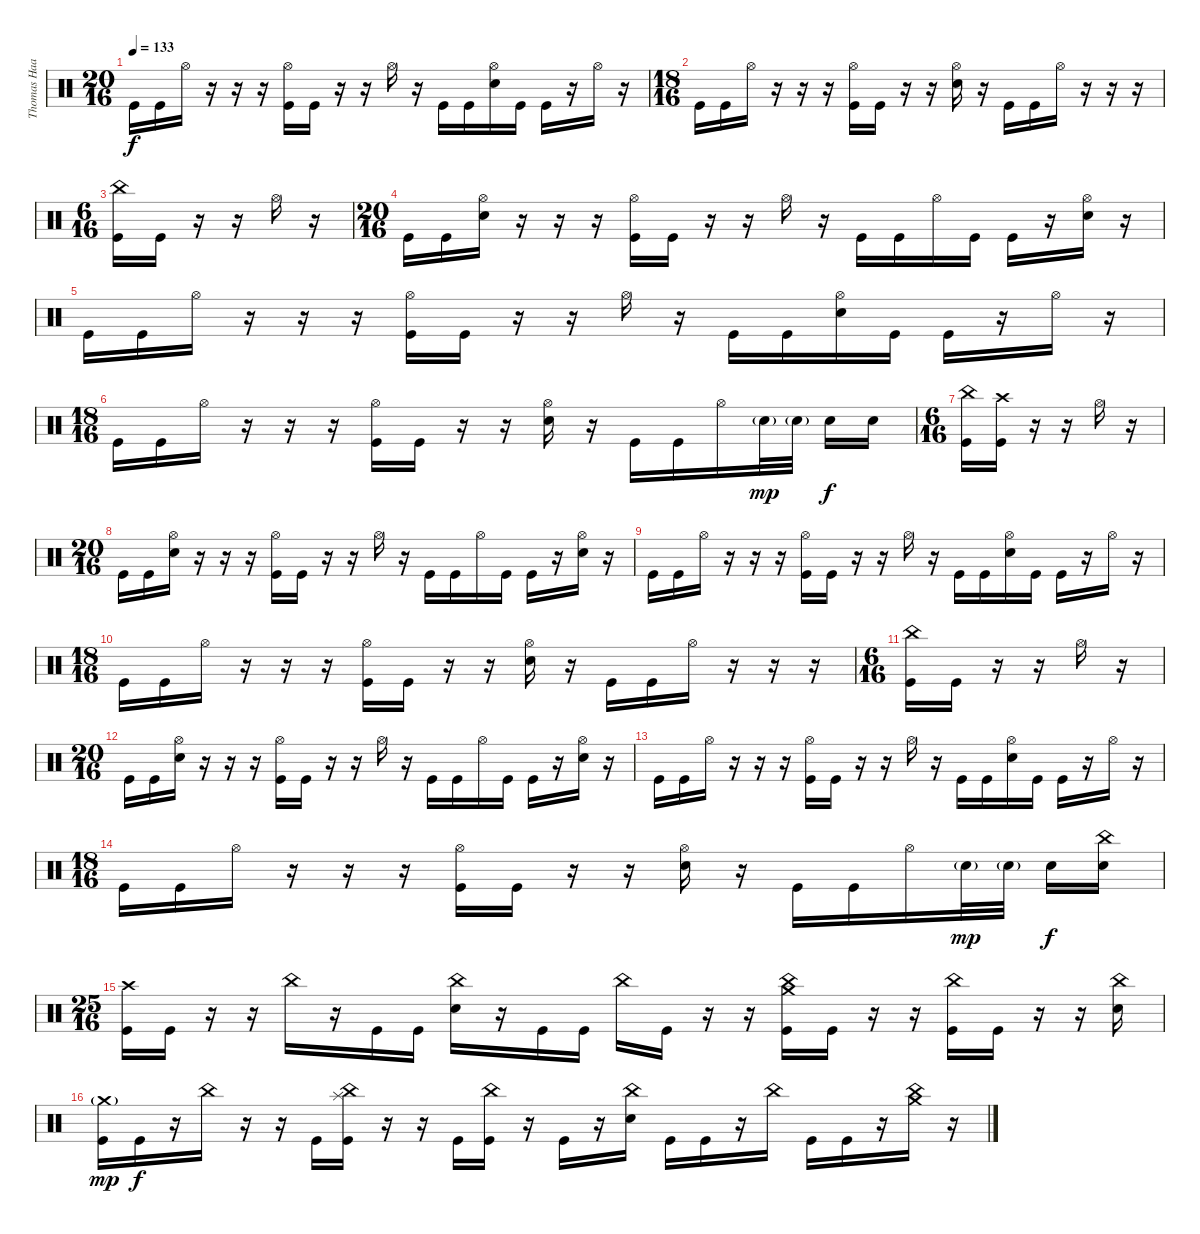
\track ("Thomas Haake" "Thomas Haa") {instrument percussion}
\staff {score}
\articulation defaults
\ts (20 16)
\tempo 133
\clef neutral
\ks c "Kick (hit)".16{dy f} "Kick (hit)".16 "Hi-Hat (open)".16
r.16 r.16 r.16 ("Hi-Hat (open)" "Kick (hit)").16 "Kick (hit)".16 r.16 r.16 "Hi-Hat (open)".16 r.16 "Kick (hit)".16 "Kick (hit)".16 ("Hi-Hat (open)" "Snare (hit) 2").16 "Kick (hit)".16 "Kick (hit)".16 r.16 "Hi-Hat (open)".16 r.16 |
\ts (18 16)
"Kick (hit)".16 "Kick (hit)".16 "Hi-Hat (open)".16 r.16 r.16 r.16 ("Hi-Hat (open)" "Kick (hit)").16 "Kick (hit)".16 r.16 r.16 ("Hi-Hat (open)" "Snare (hit) 2").16 r.16 "Kick (hit)".16 "Kick (hit)".16 "Hi-Hat (open)".16 r.16 r.16 r.16 |
\ts (6 16)
("China (hit)" "Kick (hit)").16 "Kick (hit)".16 r.16 r.16 "Hi-Hat (open)".16 r.16 |
\ts (20 16)
"Kick (hit)".16 "Kick (hit)".16 ("Hi-Hat (open)" "Snare (hit) 2").16 r.16 r.16 r.16 ("Hi-Hat (open)" "Kick (hit)").16 "Kick (hit)".16 r.16 r.16 "Hi-Hat (open)".16 r.16 "Kick (hit)".16 "Kick (hit)".16 "Hi-Hat (open)".16 "Kick (hit)".16 "Kick (hit)".16 r.16 ("Hi-Hat (open)" "Snare (hit) 2").16 r.16 |
"Kick (hit)".16 "Kick (hit)".16 "Hi-Hat (open)".16 r.16 r.16 r.16 ("Hi-Hat (open)" "Kick (hit)").16 "Kick (hit)".16 r.16 r.16 "Hi-Hat (open)".16 r.16 "Kick (hit)".16 "Kick (hit)".16 ("Hi-Hat (open)" "Snare (hit) 2").16 "Kick (hit)".16 "Kick (hit)".16 r.16 "Hi-Hat (open)".16 r.16 |
\ts (18 16)
"Kick (hit)".16 "Kick (hit)".16 "Hi-Hat (open)".16 r.16 r.16 r.16 ("Hi-Hat (open)" "Kick (hit)").16 "Kick (hit)".16 r.16 r.16 ("Hi-Hat (open)" "Snare (hit) 2").16 r.16 "Kick (hit)".16 "Kick (hit)".16 "Hi-Hat (open)".16 "Snare (hit) 2"{g}.32{dy mp} "Snare (hit) 2"{g}.32 "Snare (hit) 2".16{dy f} "Snare (hit) 2".16 |
\ts (6 16)
("China (hit)" "Kick (hit)").16 ("Crash high (hit)" "Kick (hit)").16 r.16 r.16 "Hi-Hat (open)".16 r.16 |
\ts (20 16)
"Kick (hit)".16 "Kick (hit)".16 ("Hi-Hat (open)" "Snare (hit) 2").16 r.16 r.16 r.16 ("Hi-Hat (open)" "Kick (hit)").16 "Kick (hit)".16 r.16 r.16 "Hi-Hat (open)".16 r.16 "Kick (hit)".16 "Kick (hit)".16 "Hi-Hat (open)".16 "Kick (hit)".16 "Kick (hit)".16 r.16 ("Hi-Hat (open)" "Snare (hit) 2").16 r.16 |
"Kick (hit)".16 "Kick (hit)".16 "Hi-Hat (open)".16 r.16 r.16 r.16 ("Hi-Hat (open)" "Kick (hit)").16 "Kick (hit)".16 r.16 r.16 "Hi-Hat (open)".16 r.16 "Kick (hit)".16 "Kick (hit)".16 ("Hi-Hat (open)" "Snare (hit) 2").16 "Kick (hit)".16 "Kick (hit)".16 r.16 "Hi-Hat (open)".16 r.16 |
\ts (18 16)
"Kick (hit)".16 "Kick (hit)".16 "Hi-Hat (open)".16 r.16 r.16 r.16 ("Hi-Hat (open)" "Kick (hit)").16 "Kick (hit)".16 r.16 r.16 ("Hi-Hat (open)" "Snare (hit) 2").16 r.16 "Kick (hit)".16 "Kick (hit)".16 "Hi-Hat (open)".16 r.16 r.16 r.16 |
\ts (6 16)
("China (hit)" "Kick (hit)").16 "Kick (hit)".16 r.16 r.16 "Hi-Hat (open)".16 r.16 |
\ts (20 16)
"Kick (hit)".16 "Kick (hit)".16 ("Hi-Hat (open)" "Snare (hit) 2").16 r.16 r.16 r.16 ("Hi-Hat (open)" "Kick (hit)").16 "Kick (hit)".16 r.16 r.16 "Hi-Hat (open)".16 r.16 "Kick (hit)".16 "Kick (hit)".16 "Hi-Hat (open)".16 "Kick (hit)".16 "Kick (hit)".16 r.16 ("Hi-Hat (open)" "Snare (hit) 2").16 r.16 |
"Kick (hit)".16 "Kick (hit)".16 "Hi-Hat (open)".16 r.16 r.16 r.16 ("Hi-Hat (open)" "Kick (hit)").16 "Kick (hit)".16 r.16 r.16 "Hi-Hat (open)".16 r.16 "Kick (hit)".16 "Kick (hit)".16 ("Hi-Hat (open)" "Snare (hit) 2").16 "Kick (hit)".16 "Kick (hit)".16 r.16 "Hi-Hat (open)".16 r.16 |
\ts (18 16)
"Kick (hit)".16 "Kick (hit)".16 "Hi-Hat (open)".16 r.16 r.16 r.16 ("Hi-Hat (open)" "Kick (hit)").16 "Kick (hit)".16 r.16 r.16 ("Hi-Hat (open)" "Snare (hit) 2").16 r.16 "Kick (hit)".16 "Kick (hit)".16 "Hi-Hat (open)".16 "Snare (hit) 2"{g}.32{dy mp} "Snare (hit) 2"{g}.32 "Snare (hit) 2".16{dy f} ("China (hit)" "Snare (hit) 2").16 |
\ts (25 16)
("Crash high (hit)" "Kick (hit)").16 "Kick (hit)".16 r.16 r.16 "China (hit)".16 r.16 "Kick (hit)".16 "Kick (hit)".16 ("China (hit)" "Snare (hit) 2").16 r.16 "Kick (hit)".16 "Kick (hit)".16 "China (hit)".16 "Kick (hit)".16 r.16 r.16 ("Crash medium (hit)" "China (hit)" "Kick (hit)").16 "Kick (hit)".16 r.16 r.16 ("China (hit)" "Kick (hit)").16 "Kick (hit)".16 r.16 r.16 ("China (hit)" "Snare (hit) 2").16 |
("Crash medium (hit)"{g} "Kick (hit)").16{dy mp} "Kick (hit)".16{dy f} r.16 "China (hit)".16 r.16 r.16 "Kick (hit)".16 ("Splash (hit)" "China (hit)" "Kick (hit)").16 r.16 r.16 "Kick (hit)".16 ("China (hit)" "Kick (hit)").16 r.16 "Kick (hit)".16 r.16 ("China (hit)" "Snare (hit) 2").16 "Kick (hit)".16 "Kick (hit)".16 r.16 "China (hit)".16 "Kick (hit)".16 "Kick (hit)".16 r.16 ("Crash medium (hit)" "China (hit)").16 r.16
